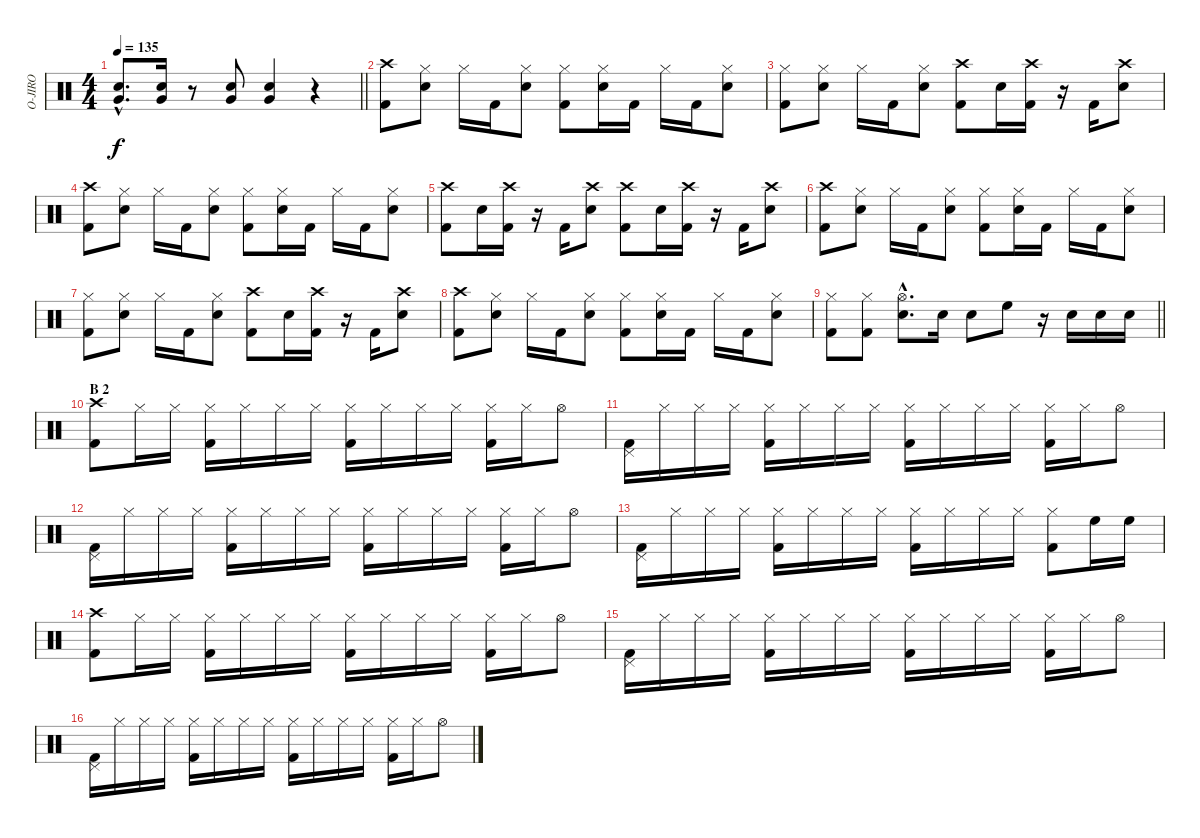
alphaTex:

\track ("O-JIRO" "O-JIRO") {instrument percussion}
\staff {score}
\articulation defaults
\ts (4 4)
\tempo 135
\clef neutral
\barLineRight lightlight
\ks c
("Snare (hit) 2"{hac} "Very Low Tom (hit)"{hac}).8{d dy f} ("Snare (hit) 2" "Very Low Tom (hit)").16 r.8 ("Snare (hit) 2" "Very Low Tom (hit)").8 ("Snare (hit) 2" "Very Low Tom (hit)").4 r.4 |
("Crash high (hit)" "Kick (hit) 2").8 ("Hi-Hat (closed)" "Snare (hit) 2").8 "Hi-Hat (closed)".16 "Kick (hit) 2".16 ("Hi-Hat (closed)" "Snare (hit) 2").8 ("Hi-Hat (closed)" "Kick (hit) 2").8 ("Hi-Hat (closed)" "Snare (hit) 2").16 "Kick (hit) 2".16 "Hi-Hat (closed)".16 "Kick (hit) 2".16 ("Hi-Hat (closed)" "Snare (hit) 2").8 |
("Hi-Hat (closed)" "Kick (hit) 2").8 ("Hi-Hat (closed)" "Snare (hit) 2").8 "Hi-Hat (closed)".16 "Kick (hit) 2".16 ("Hi-Hat (closed)" "Snare (hit) 2").8 ("Crash high (hit)" "Kick (hit) 2").8 "Snare (hit) 2".16 ("Crash high (hit)" "Kick (hit) 2").16 r.16 "Kick (hit) 2".16 ("Crash high (hit)" "Snare (hit) 2").8 |
("Crash high (hit)" "Kick (hit) 2").8 ("Hi-Hat (closed)" "Snare (hit) 2").8 "Hi-Hat (closed)".16 "Kick (hit) 2".16 ("Hi-Hat (closed)" "Snare (hit) 2").8 ("Hi-Hat (closed)" "Kick (hit) 2").8 ("Hi-Hat (closed)" "Snare (hit) 2").16 "Kick (hit) 2".16 "Hi-Hat (closed)".16 "Kick (hit) 2".16 ("Hi-Hat (closed)" "Snare (hit) 2").8 |
("Crash high (hit)" "Kick (hit) 2").8 "Snare (hit) 2".16 ("Crash high (hit)" "Kick (hit) 2").16 r.16 "Kick (hit) 2".16 ("Crash high (hit)" "Snare (hit) 2").8 ("Crash high (hit)" "Kick (hit) 2").8 "Snare (hit) 2".16 ("Crash high (hit)" "Kick (hit) 2").16 r.16 "Kick (hit) 2".16 ("Crash high (hit)" "Snare (hit) 2").8 |
("Crash high (hit)" "Kick (hit) 2").8 ("Hi-Hat (closed)" "Snare (hit) 2").8 "Hi-Hat (closed)".16 "Kick (hit) 2".16 ("Hi-Hat (closed)" "Snare (hit) 2").8 ("Hi-Hat (closed)" "Kick (hit) 2").8 ("Hi-Hat (closed)" "Snare (hit) 2").16 "Kick (hit) 2".16 "Hi-Hat (closed)".16 "Kick (hit) 2".16 ("Hi-Hat (closed)" "Snare (hit) 2").8 |
("Hi-Hat (closed)" "Kick (hit) 2").8 ("Hi-Hat (closed)" "Snare (hit) 2").8 "Hi-Hat (closed)".16 "Kick (hit) 2".16 ("Hi-Hat (closed)" "Snare (hit) 2").8 ("Crash high (hit)" "Kick (hit) 2").8 "Snare (hit) 2".16 ("Crash high (hit)" "Kick (hit) 2").16 r.16 "Kick (hit) 2".16 ("Crash high (hit)" "Snare (hit) 2").8 |
("Crash high (hit)" "Kick (hit) 2").8 ("Hi-Hat (closed)" "Snare (hit) 2").8 "Hi-Hat (closed)".16 "Kick (hit) 2".16 ("Hi-Hat (closed)" "Snare (hit) 2").8 ("Hi-Hat (closed)" "Kick (hit) 2").8 ("Hi-Hat (closed)" "Snare (hit) 2").16 "Kick (hit) 2".16 "Hi-Hat (closed)".16 "Kick (hit) 2".16 ("Hi-Hat (closed)" "Snare (hit) 2").8 |
\barLineRight lightlight
("Hi-Hat (closed)" "Kick (hit) 2").8 ("Hi-Hat (closed)" "Kick (hit) 2").8 ("Hi-Hat (open)"{hac} "Snare (hit) 2"{hac}).8{d} "Snare (hit) 2".16 "Snare (hit) 2".8 "High Floor Tom (hit)".8 r.16 "Snare (hit) 2".16 "Snare (hit) 2".16 "Snare (hit) 2".16 |
\section ("" "B 2")
("Crash high (hit)" "Kick (hit) 2").8 "Hi-Hat (closed)".16 "Hi-Hat (closed)".16 ("Hi-Hat (closed)" "Kick (hit) 2").16 "Hi-Hat (closed)".16 "Hi-Hat (closed)".16 "Hi-Hat (closed)".16 ("Hi-Hat (closed)" "Kick (hit) 2").16 "Hi-Hat (closed)".16 "Hi-Hat (closed)".16 "Hi-Hat (closed)".16 ("Hi-Hat (closed)" "Kick (hit) 2").16 "Hi-Hat (closed)".16 "Hi-Hat (open)".8 |
("Pedal Hi-Hat (hit)" "Kick (hit) 2").16 "Hi-Hat (closed)".16 "Hi-Hat (closed)".16 "Hi-Hat (closed)".16 ("Hi-Hat (closed)" "Kick (hit) 2").16 "Hi-Hat (closed)".16 "Hi-Hat (closed)".16 "Hi-Hat (closed)".16 ("Hi-Hat (closed)" "Kick (hit) 2").16 "Hi-Hat (closed)".16 "Hi-Hat (closed)".16 "Hi-Hat (closed)".16 ("Hi-Hat (closed)" "Kick (hit) 2").16 "Hi-Hat (closed)".16 "Hi-Hat (open)".8 |
("Pedal Hi-Hat (hit)" "Kick (hit) 2").16 "Hi-Hat (closed)".16 "Hi-Hat (closed)".16 "Hi-Hat (closed)".16 ("Hi-Hat (closed)" "Kick (hit) 2").16 "Hi-Hat (closed)".16 "Hi-Hat (closed)".16 "Hi-Hat (closed)".16 ("Hi-Hat (closed)" "Kick (hit) 2").16 "Hi-Hat (closed)".16 "Hi-Hat (closed)".16 "Hi-Hat (closed)".16 ("Hi-Hat (closed)" "Kick (hit) 2").16 "Hi-Hat (closed)".16 "Hi-Hat (open)".8 |
("Pedal Hi-Hat (hit)" "Kick (hit) 2").16 "Hi-Hat (closed)".16 "Hi-Hat (closed)".16 "Hi-Hat (closed)".16 ("Hi-Hat (closed)" "Kick (hit) 2").16 "Hi-Hat (closed)".16 "Hi-Hat (closed)".16 "Hi-Hat (closed)".16 ("Hi-Hat (closed)" "Kick (hit) 2").16 "Hi-Hat (closed)".16 "Hi-Hat (closed)".16 "Hi-Hat (closed)".16 ("Hi-Hat (closed)" "Kick (hit) 2").8 "High Floor Tom (hit)".16 "High Floor Tom (hit)".16 |
("Crash high (hit)" "Kick (hit) 2").8 "Hi-Hat (closed)".16 "Hi-Hat (closed)".16 ("Hi-Hat (closed)" "Kick (hit) 2").16 "Hi-Hat (closed)".16 "Hi-Hat (closed)".16 "Hi-Hat (closed)".16 ("Hi-Hat (closed)" "Kick (hit) 2").16 "Hi-Hat (closed)".16 "Hi-Hat (closed)".16 "Hi-Hat (closed)".16 ("Hi-Hat (closed)" "Kick (hit) 2").16 "Hi-Hat (closed)".16 "Hi-Hat (open)".8 |
("Pedal Hi-Hat (hit)" "Kick (hit) 2").16 "Hi-Hat (closed)".16 "Hi-Hat (closed)".16 "Hi-Hat (closed)".16 ("Hi-Hat (closed)" "Kick (hit) 2").16 "Hi-Hat (closed)".16 "Hi-Hat (closed)".16 "Hi-Hat (closed)".16 ("Hi-Hat (closed)" "Kick (hit) 2").16 "Hi-Hat (closed)".16 "Hi-Hat (closed)".16 "Hi-Hat (closed)".16 ("Hi-Hat (closed)" "Kick (hit) 2").16 "Hi-Hat (closed)".16 "Hi-Hat (open)".8 |
("Pedal Hi-Hat (hit)" "Kick (hit) 2").16 "Hi-Hat (closed)".16 "Hi-Hat (closed)".16 "Hi-Hat (closed)".16 ("Hi-Hat (closed)" "Kick (hit) 2").16 "Hi-Hat (closed)".16 "Hi-Hat (closed)".16 "Hi-Hat (closed)".16 ("Hi-Hat (closed)" "Kick (hit) 2").16 "Hi-Hat (closed)".16 "Hi-Hat (closed)".16 "Hi-Hat (closed)".16 ("Hi-Hat (closed)" "Kick (hit) 2").16 "Hi-Hat (closed)".16 "Hi-Hat (open)".8
